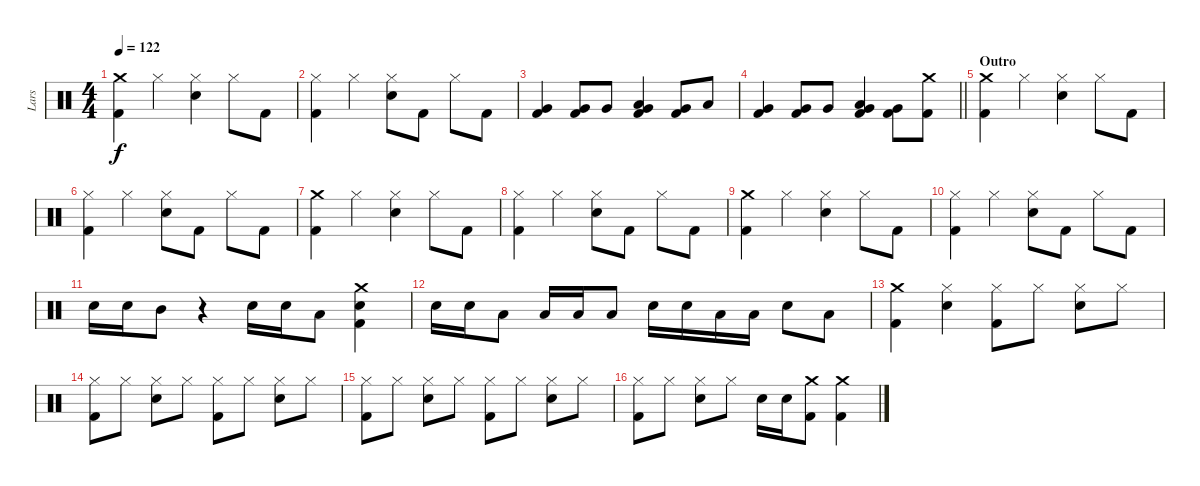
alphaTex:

\track ("Lars" "Lars") {instrument percussion}
\staff {score}
\articulation defaults
\ts (4 4)
\tempo 122
\clef neutral
\ks c
("Crash medium (hit)" "Kick (hit) 2").4{dy f} "Hi-Hat (closed)".4 ("Hi-Hat (closed)" "Snare (hit) 2").4 "Hi-Hat (closed)".8 "Kick (hit) 2".8 |
("Hi-Hat (closed)" "Kick (hit) 2").4 "Hi-Hat (closed)".4 ("Hi-Hat (closed)" "Snare (hit) 2").8 "Kick (hit) 2".8 "Hi-Hat (closed)".8 "Kick (hit) 2".8 |
("Very Low Tom (hit)" "Kick (hit) 2").4 ("Very Low Tom (hit)" "Kick (hit) 2").8 "Very Low Tom (hit)".8 ("Very Low Tom (hit)" "Kick (hit) 2" "Low Tom (hit)").4 ("Very Low Tom (hit)" "Kick (hit) 2").8 "Low Tom (hit)".8 |
\barLineRight lightlight
("Very Low Tom (hit)" "Kick (hit) 2").4 ("Very Low Tom (hit)" "Kick (hit) 2").8 "Very Low Tom (hit)".8 ("Very Low Tom (hit)" "Kick (hit) 2" "Low Tom (hit)").4 ("Very Low Tom (hit)" "Kick (hit) 2").8 ("Crash medium (hit)" "Kick (hit) 2").8 |
\section ("" "Outro")
("Crash medium (hit)" "Kick (hit) 2").4 "Hi-Hat (closed)".4 ("Hi-Hat (closed)" "Snare (hit) 2").4 "Hi-Hat (closed)".8 "Kick (hit) 2".8 |
("Hi-Hat (closed)" "Kick (hit) 2").4 "Hi-Hat (closed)".4 ("Hi-Hat (closed)" "Snare (hit) 2").8 "Kick (hit) 2".8 "Hi-Hat (closed)".8 "Kick (hit) 2".8 |
("Crash medium (hit)" "Kick (hit) 2").4 "Hi-Hat (closed)".4 ("Hi-Hat (closed)" "Snare (hit) 2").4 "Hi-Hat (closed)".8 "Kick (hit) 2".8 |
("Hi-Hat (closed)" "Kick (hit) 2").4 "Hi-Hat (closed)".4 ("Hi-Hat (closed)" "Snare (hit) 2").8 "Kick (hit) 2".8 "Hi-Hat (closed)".8 "Kick (hit) 2".8 |
("Crash medium (hit)" "Kick (hit) 2").4 "Hi-Hat (closed)".4 ("Hi-Hat (closed)" "Snare (hit) 2").4 "Hi-Hat (closed)".8 "Kick (hit) 2".8 |
("Hi-Hat (closed)" "Kick (hit) 2").4 "Hi-Hat (closed)".4 ("Hi-Hat (closed)" "Snare (hit) 2").8 "Kick (hit) 2".8 "Hi-Hat (closed)".8 "Kick (hit) 2".8 |
"Snare (hit) 2".16 "Snare (hit) 2".16 "Mid Tom (hit)".8 r.4 "Snare (hit) 2".16 "Snare (hit) 2".16 "Low Tom (hit)".8 ("Crash medium (hit)" "Snare (hit) 2" "Kick (hit) 2").4 |
"Snare (hit) 2".16 "Snare (hit) 2".16 "Low Tom (hit)".8 "Low Tom (hit)".16 "Low Tom (hit)".16 "Low Tom (hit)".8 "Snare (hit) 2".16 "Snare (hit) 2".16 "Low Tom (hit)".16 "Low Tom (hit)".16 "Snare (hit) 2".8 "Low Tom (hit)".8 |
("Crash medium (hit)" "Kick (hit) 2").4 ("Hi-Hat (closed)" "Snare (hit) 2").4 ("Hi-Hat (closed)" "Kick (hit) 2").8 "Hi-Hat (closed)".8 ("Hi-Hat (closed)" "Snare (hit) 2").8 "Hi-Hat (closed)".8 |
("Hi-Hat (closed)" "Kick (hit) 2").8 "Hi-Hat (closed)".8 ("Hi-Hat (closed)" "Snare (hit) 2").8 "Hi-Hat (closed)".8 ("Hi-Hat (closed)" "Kick (hit) 2").8 "Hi-Hat (closed)".8 ("Hi-Hat (closed)" "Snare (hit) 2").8 "Hi-Hat (closed)".8 |
("Hi-Hat (closed)" "Kick (hit) 2").8 "Hi-Hat (closed)".8 ("Hi-Hat (closed)" "Snare (hit) 2").8 "Hi-Hat (closed)".8 ("Hi-Hat (closed)" "Kick (hit) 2").8 "Hi-Hat (closed)".8 ("Hi-Hat (closed)" "Snare (hit) 2").8 "Hi-Hat (closed)".8 |
("Hi-Hat (closed)" "Kick (hit) 2").8 "Hi-Hat (closed)".8 ("Hi-Hat (closed)" "Snare (hit) 2").8 "Hi-Hat (closed)".8 "Snare (hit) 2".16 "Snare (hit) 2".16 ("Crash medium (hit)" "Kick (hit) 2").8 ("Crash medium (hit)" "Kick (hit) 2").4
